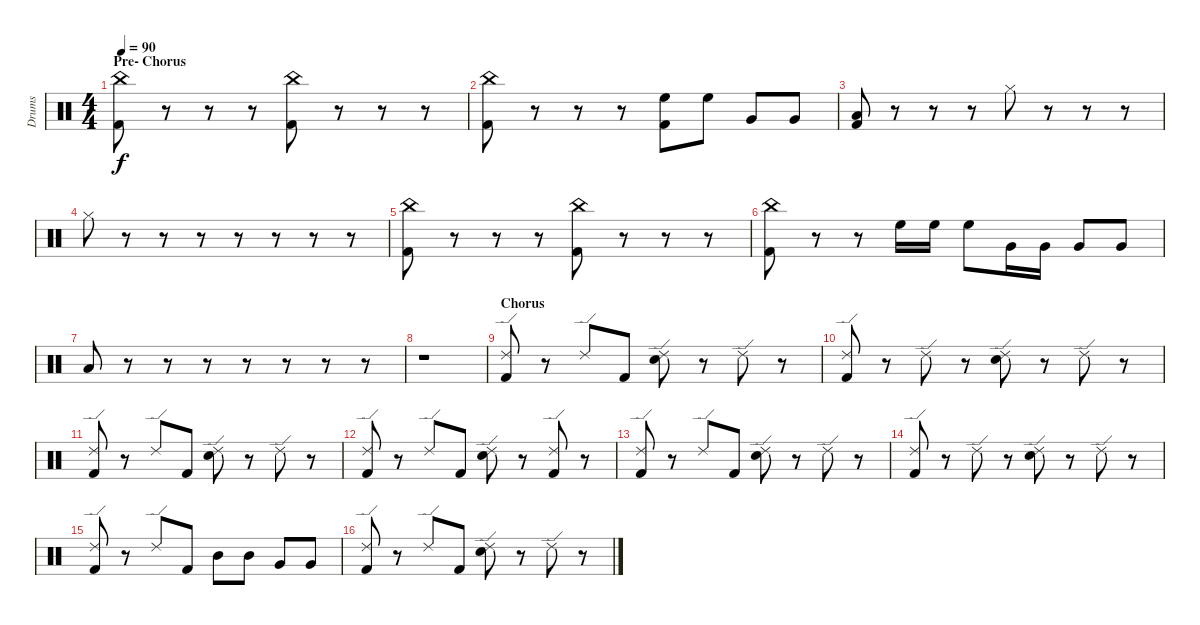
\track ("Drums" "Drums") {instrument percussion}
\staff {score}
\articulation defaults
\ts (4 4)
\section ("" "Pre- Chorus")
\tempo 90
\clef neutral
\ks c
("China (hit)" "Kick (hit) 2").8{dy f} r.8 r.8 r.8 ("China (hit)" "Kick (hit) 2").8 r.8 r.8 r.8 |
("China (hit)" "Kick (hit) 2").8 r.8 r.8 r.8 ("High Floor Tom (hit)" "Kick (hit) 2").8 "High Floor Tom (hit)".8 "Very Low Tom (hit)".8 "Very Low Tom (hit)".8 |
("Low Floor Tom (hit)" "Kick (hit) 2").8 r.8 r.8 r.8 "Hi-Hat (closed)".8 r.8 r.8 r.8 |
"Hi-Hat (closed)".8 r.8 r.8 r.8 r.8 r.8 r.8 r.8 |
("China (hit)" "Kick (hit) 2").8 r.8 r.8 r.8 ("China (hit)" "Kick (hit) 2").8 r.8 r.8 r.8 |
("China (hit)" "Kick (hit) 2").8 r.8 r.8 "High Floor Tom (hit)".16 "High Floor Tom (hit)".16 "High Floor Tom (hit)".8 "Very Low Tom (hit)".16 "Very Low Tom (hit)".16 "Very Low Tom (hit)".8 "Very Low Tom (hit)".8 |
"Low Floor Tom (hit)".8 r.8 r.8 r.8 r.8 r.8 r.8 r.8 |
r.1 |
\section ("" "Chorus")
("Ride (edge) 2" "Kick (hit) 2").8 r.8 "Ride (edge) 2".8 "Kick (hit) 2".8 ("Ride (edge) 2" "Snare (hit) 2").8 r.8 "Ride (edge) 2".8 r.8 |
("Ride (edge) 2" "Kick (hit) 2").8 r.8 "Ride (edge) 2".8 r.8 ("Ride (edge) 2" "Snare (hit) 2").8 r.8 "Ride (edge) 2".8 r.8 |
("Ride (edge) 2" "Kick (hit) 2").8 r.8 "Ride (edge) 2".8 "Kick (hit) 2".8 ("Ride (edge) 2" "Snare (hit) 2").8 r.8 "Ride (edge) 2".8 r.8 |
("Ride (edge) 2" "Kick (hit) 2").8 r.8 "Ride (edge) 2".8 "Kick (hit) 2".8 ("Ride (edge) 2" "Snare (hit) 2").8 r.8 ("Ride (edge) 2" "Kick (hit) 2").8 r.8 |
("Ride (edge) 2" "Kick (hit) 2").8 r.8 "Ride (edge) 2".8 "Kick (hit) 2".8 ("Ride (edge) 2" "Snare (hit) 2").8 r.8 "Ride (edge) 2".8 r.8 |
("Ride (edge) 2" "Kick (hit) 2").8 r.8 "Ride (edge) 2".8 r.8 ("Ride (edge) 2" "Snare (hit) 2").8 r.8 "Ride (edge) 2".8 r.8 |
("Ride (edge) 2" "Kick (hit) 2").8 r.8 "Ride (edge) 2".8 "Kick (hit) 2".8 "Mid Tom (hit)".8 "Mid Tom (hit)".8 "Very Low Tom (hit)".8 "Very Low Tom (hit)".8 |
("Ride (edge) 2" "Kick (hit) 2").8 r.8 "Ride (edge) 2".8 "Kick (hit) 2".8 ("Ride (edge) 2" "Snare (hit) 2").8 r.8 "Ride (edge) 2".8 r.8
